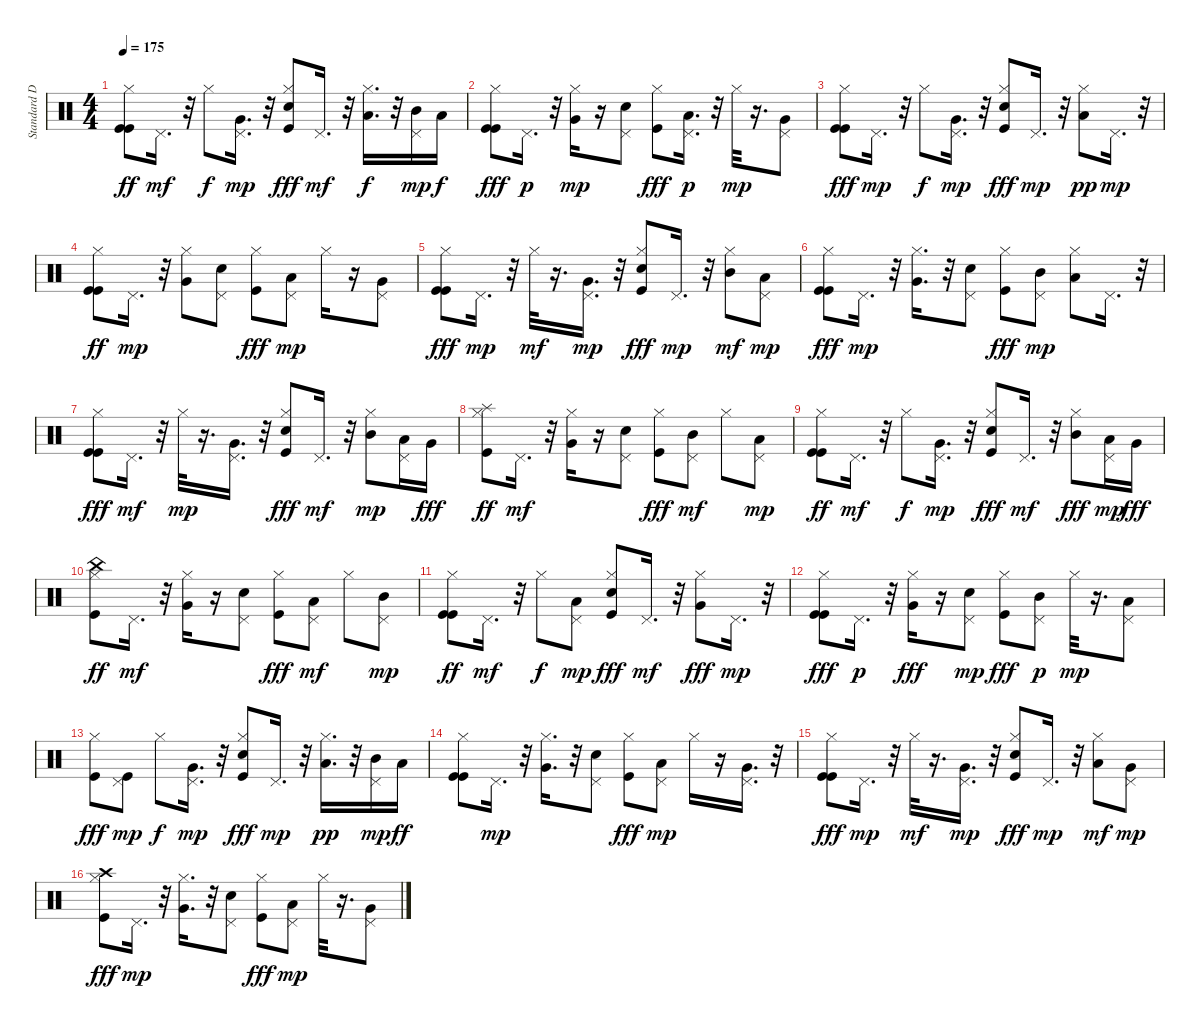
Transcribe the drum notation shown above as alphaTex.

\track ("Standard Drums" "Standard D") {instrument percussion}
\staff {score}
\articulation defaults
\ts (4 4)
\tempo 175
\clef neutral
\ks c
("Kick (hit)" "Kick (hit)" "Hi-Hat (closed)").8{dy ff} "Pedal Hi-Hat (hit)".16{d dy mf} r.32 "Hi-Hat (closed)".8{dy f} ("Very Low Tom (hit)" "Pedal Hi-Hat (hit)").16{d dy mp} r.32 ("Snare (hit) 2" "Kick (hit)" "Hi-Hat (closed)").8{dy fff} "Pedal Hi-Hat (hit)".16{d dy mf} r.32 ("Low Tom (hit)" "Hi-Hat (closed)").16{d dy f} r.32 ("Mid Tom (hit)" "Pedal Hi-Hat (hit)").16{dy mp} "Low Tom (hit)".16{dy f} |
("Kick (hit)" "Kick (hit)" "Hi-Hat (closed)").8{dy fff} "Pedal Hi-Hat (hit)".16{d dy p} r.32 ("Very Low Tom (hit)" "Hi-Hat (closed)").16{dy mp} r.16 ("Snare (hit) 2" "Pedal Hi-Hat (hit)").8 ("Kick (hit)" "Hi-Hat (closed)").8{dy fff} ("Low Tom (hit)" "Pedal Hi-Hat (hit)").16{d dy p} r.32 "Hi-Hat (closed)".32{dy mp} r.16{d} ("Very Low Tom (hit)" "Pedal Hi-Hat (hit)").8 |
("Kick (hit)" "Kick (hit)" "Hi-Hat (closed)").8{dy fff} "Pedal Hi-Hat (hit)".16{d dy mp} r.32 "Hi-Hat (closed)".8{dy f} ("Very Low Tom (hit)" "Pedal Hi-Hat (hit)").16{d dy mp} r.32 ("Snare (hit) 2" "Kick (hit)" "Hi-Hat (closed)").8{dy fff} "Pedal Hi-Hat (hit)".16{d dy mp} r.32 ("Low Tom (hit)" "Hi-Hat (closed)").8{dy pp} "Pedal Hi-Hat (hit)".16{d dy mp} r.32 |
("Kick (hit)" "Kick (hit)" "Hi-Hat (closed)").8{dy ff} "Pedal Hi-Hat (hit)".16{d dy mp} r.32 ("Very Low Tom (hit)" "Hi-Hat (closed)").8 ("Snare (hit) 2" "Pedal Hi-Hat (hit)").8 ("Kick (hit)" "Hi-Hat (closed)").8{dy fff} ("Low Tom (hit)" "Pedal Hi-Hat (hit)").8{dy mp} "Hi-Hat (closed)".16 r.16 ("Very Low Tom (hit)" "Pedal Hi-Hat (hit)").8 |
("Kick (hit)" "Kick (hit)" "Hi-Hat (closed)").8{dy fff} "Pedal Hi-Hat (hit)".16{d dy mp} r.32 "Hi-Hat (closed)".32{dy mf} r.16{d} ("Very Low Tom (hit)" "Pedal Hi-Hat (hit)").16{d dy mp} r.32 ("Snare (hit) 2" "Kick (hit)" "Hi-Hat (closed)").8{dy fff} "Pedal Hi-Hat (hit)".16{d dy mp} r.32 ("Mid Tom (hit)" "Hi-Hat (closed)").8{dy mf} ("Low Tom (hit)" "Pedal Hi-Hat (hit)").8{dy mp} |
("Kick (hit)" "Kick (hit)" "Hi-Hat (closed)").8{dy fff} "Pedal Hi-Hat (hit)".16{d dy mp} r.32 ("Very Low Tom (hit)" "Hi-Hat (closed)").16{d} r.32 ("Snare (hit) 2" "Pedal Hi-Hat (hit)").8 ("Kick (hit)" "Hi-Hat (closed)").8{dy fff} ("Mid Tom (hit)" "Pedal Hi-Hat (hit)").8{dy mp} ("Low Tom (hit)" "Hi-Hat (closed)").8 "Pedal Hi-Hat (hit)".16{d} r.32 |
("Kick (hit)" "Kick (hit)" "Hi-Hat (closed)").8{dy fff} "Pedal Hi-Hat (hit)".16{d dy mf} r.32 "Hi-Hat (closed)".32{dy mp} r.16{d} ("Very Low Tom (hit)" "Pedal Hi-Hat (hit)").16{d} r.32 ("Snare (hit) 2" "Kick (hit)" "Hi-Hat (closed)").8{dy fff} "Pedal Hi-Hat (hit)".16{d dy mf} r.32 ("Mid Tom (hit)" "Hi-Hat (closed)").8{dy mp} ("Low Tom (hit)" "Pedal Hi-Hat (hit)").16 "Very Low Tom (hit)".16{dy fff} |
("Kick (hit)" "Splash (hit)" "Hi-Hat (closed)").8{dy ff} "Pedal Hi-Hat (hit)".16{d dy mf} r.32 ("Very Low Tom (hit)" "Hi-Hat (closed)").16 r.16 ("Snare (hit) 2" "Pedal Hi-Hat (hit)").8 ("Kick (hit)" "Hi-Hat (closed)").8{dy fff} ("Mid Tom (hit)" "Pedal Hi-Hat (hit)").8{dy mf} "Hi-Hat (closed)".8 ("Low Tom (hit)" "Pedal Hi-Hat (hit)").8{dy mp} |
("Kick (hit)" "Kick (hit)" "Hi-Hat (closed)").8{dy ff} "Pedal Hi-Hat (hit)".16{d dy mf} r.32 "Hi-Hat (closed)".8{dy f} ("Very Low Tom (hit)" "Pedal Hi-Hat (hit)").16{d dy mp} r.32 ("Snare (hit) 2" "Kick (hit)" "Hi-Hat (closed)").8{dy fff} "Pedal Hi-Hat (hit)".16{d dy mf} r.32 ("Mid Tom (hit)" "Hi-Hat (closed)").8{dy fff} ("Low Tom (hit)" "Pedal Hi-Hat (hit)").16{dy mp} "Very Low Tom (hit)".16{dy fff} |
("Kick (hit)" "China (hit)" "Hi-Hat (closed)").8{dy ff} "Pedal Hi-Hat (hit)".16{d dy mf} r.32 ("Very Low Tom (hit)" "Hi-Hat (closed)").16 r.16 ("Snare (hit) 2" "Pedal Hi-Hat (hit)").8 ("Kick (hit)" "Hi-Hat (closed)").8{dy fff} ("Low Tom (hit)" "Pedal Hi-Hat (hit)").8{dy mf} "Hi-Hat (closed)".8 ("Mid Tom (hit)" "Pedal Hi-Hat (hit)").8{dy mp} |
("Kick (hit)" "Kick (hit)" "Hi-Hat (closed)").8{dy ff} "Pedal Hi-Hat (hit)".16{d dy mf} r.32 "Hi-Hat (closed)".8{dy f} ("Low Tom (hit)" "Pedal Hi-Hat (hit)").8{dy mp} ("Snare (hit) 2" "Kick (hit)" "Hi-Hat (closed)").8{dy fff} "Pedal Hi-Hat (hit)".16{d dy mf} r.32 ("Very Low Tom (hit)" "Hi-Hat (closed)").8{dy fff} "Pedal Hi-Hat (hit)".16{d dy mp} r.32 |
("Kick (hit)" "Kick (hit)" "Hi-Hat (closed)").8{dy fff} "Pedal Hi-Hat (hit)".16{d dy p} r.32 ("Very Low Tom (hit)" "Hi-Hat (closed)").16{dy fff} r.16 ("Snare (hit) 2" "Pedal Hi-Hat (hit)").8{dy mp} ("Kick (hit)" "Hi-Hat (closed)").8{dy fff} ("Mid Tom (hit)" "Pedal Hi-Hat (hit)").8{dy p} "Hi-Hat (closed)".32{dy mp} r.16{d} ("Low Tom (hit)" "Pedal Hi-Hat (hit)").8 |
("Kick (hit)" "Hi-Hat (closed)").8{dy fff} ("Kick (hit)" "Pedal Hi-Hat (hit)").8{dy mp} "Hi-Hat (closed)".8{dy f} ("Very Low Tom (hit)" "Pedal Hi-Hat (hit)").16{d dy mp} r.32 ("Snare (hit) 2" "Kick (hit)" "Hi-Hat (closed)").8{dy fff} "Pedal Hi-Hat (hit)".16{d dy mp} r.32 ("Low Tom (hit)" "Hi-Hat (closed)").16{d dy pp} r.32 ("Mid Tom (hit)" "Pedal Hi-Hat (hit)").16{dy mp} "Low Tom (hit)".16{dy ff} |
("Kick (hit)" "Kick (hit)" "Hi-Hat (closed)").8 "Pedal Hi-Hat (hit)".16{d dy mp} r.32 ("Very Low Tom (hit)" "Hi-Hat (closed)").16{d} r.32 ("Snare (hit) 2" "Pedal Hi-Hat (hit)").8 ("Kick (hit)" "Hi-Hat (closed)").8{dy fff} ("Low Tom (hit)" "Pedal Hi-Hat (hit)").8{dy mp} "Hi-Hat (closed)".16 r.16 ("Very Low Tom (hit)" "Pedal Hi-Hat (hit)").16{d} r.32 |
("Kick (hit)" "Kick (hit)" "Hi-Hat (closed)").8{dy fff} "Pedal Hi-Hat (hit)".16{d dy mp} r.32 "Hi-Hat (closed)".32{dy mf} r.16{d} ("Very Low Tom (hit)" "Pedal Hi-Hat (hit)").16{d dy mp} r.32 ("Snare (hit) 2" "Kick (hit)" "Hi-Hat (closed)").8{dy fff} "Pedal Hi-Hat (hit)".16{d dy mp} r.32 ("Low Tom (hit)" "Hi-Hat (closed)").8{dy mf} ("Very Low Tom (hit)" "Pedal Hi-Hat (hit)").8{dy mp} |
("Kick (hit)" "Crash high (hit)" "Hi-Hat (closed)").8{dy fff} "Pedal Hi-Hat (hit)".16{d dy mp} r.32 ("Very Low Tom (hit)" "Hi-Hat (closed)").16{d} r.32 ("Snare (hit) 2" "Pedal Hi-Hat (hit)").8 ("Kick (hit)" "Hi-Hat (closed)").8{dy fff} ("Low Tom (hit)" "Pedal Hi-Hat (hit)").8{dy mp} "Hi-Hat (closed)".32 r.16{d} ("Very Low Tom (hit)" "Pedal Hi-Hat (hit)").8
